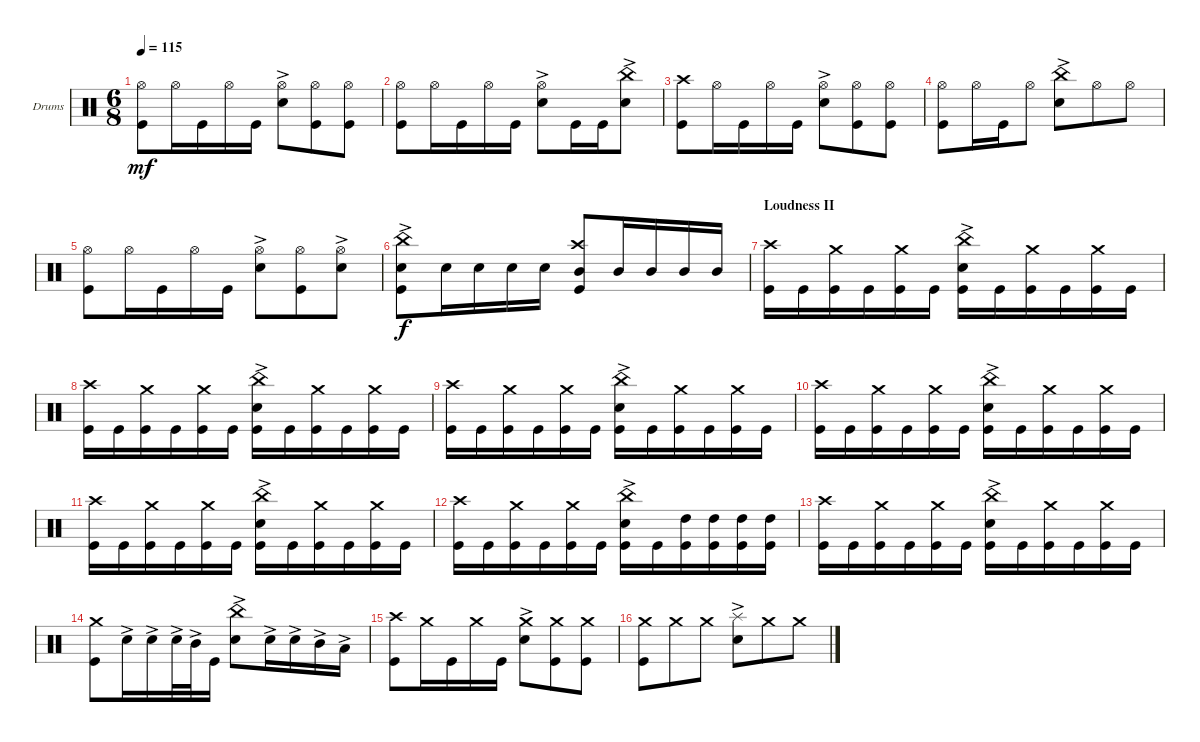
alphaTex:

\bracketExtendMode groupsimilarinstruments
\firstSystemTrackNameOrientation horizontal
\otherSystemsTrackNameOrientation horizontal
\track ("Drumkit" "Drums") {instrument percussion}
\staff {score}
\articulation defaults
\ts (6 8)
\tempo 115
\clef neutral
\ks c
("Kick (hit)" "Hi-Hat (open)").8{dy mf} "Hi-Hat (open)".16 "Kick (hit)".16 "Hi-Hat (open)".16 "Kick (hit)".16 ("Snare (hit) 2"{ac} "Hi-Hat (open)").8 ("Kick (hit)" "Hi-Hat (open)").8 ("Kick (hit)" "Hi-Hat (open)").8 |
("Kick (hit)" "Hi-Hat (open)").8 "Hi-Hat (open)".16 "Kick (hit)".16 "Hi-Hat (open)".16 "Kick (hit)".16 ("Snare (hit) 2"{ac} "Hi-Hat (open)").8 "Kick (hit)".16 "Kick (hit)".16 ("Snare (hit) 2"{ac} "China (hit)").8 |
("Kick (hit)" "Crash high (hit)").8 "Hi-Hat (open)".16 "Kick (hit)".16 "Hi-Hat (open)".16 "Kick (hit)".16 ("Snare (hit) 2"{ac} "Hi-Hat (open)").8 ("Kick (hit)" "Hi-Hat (open)").8 ("Kick (hit)" "Hi-Hat (open)").8 |
("Kick (hit)" "Hi-Hat (open)").8 "Hi-Hat (open)".16 "Kick (hit)".16 "Hi-Hat (open)".8 ("Snare (hit) 2"{ac} "China (hit)").8 "Hi-Hat (open)".8 "Hi-Hat (open)".8 |
("Kick (hit)" "Hi-Hat (open)").8 "Hi-Hat (open)".16 "Kick (hit)".16 "Hi-Hat (open)".16 "Kick (hit)".16 ("Snare (hit) 2"{ac} "Hi-Hat (open)").8 ("Kick (hit)" "Hi-Hat (open)").8 ("Hi-Hat (open)" "Snare (hit) 2"{ac}).8 |
("Kick (hit)" "China (hit)" "Snare (hit) 2"{ac}).8{dy f} "Snare (hit) 2".16 "Snare (hit) 2".16 "Snare (hit) 2".16 "Snare (hit) 2".16 ("Mid Tom (hit)" "Kick (hit)" "Crash high (hit)").8 "Mid Tom (hit)".16 "Mid Tom (hit)".16 "Mid Tom (hit)".16 "Mid Tom (hit)".16 |
\section ("" "Loudness II")
("Kick (hit)" "Crash high (hit)").16 "Kick (hit)".16 ("Kick (hit)" "Crash medium (hit)").16 "Kick (hit)".16 ("Kick (hit)" "Crash medium (hit)").16 "Kick (hit)".16 ("Kick (hit)" "China (hit)" "Snare (hit) 2"{ac}).16 "Kick (hit)".16 ("Kick (hit)" "Crash medium (hit)").16 "Kick (hit)".16 ("Kick (hit)" "Crash medium (hit)").16 "Kick (hit)".16 |
("Kick (hit)" "Crash high (hit)").16 "Kick (hit)".16 ("Kick (hit)" "Crash medium (hit)").16 "Kick (hit)".16 ("Kick (hit)" "Crash medium (hit)").16 "Kick (hit)".16 ("Kick (hit)" "China (hit)" "Snare (hit) 2"{ac}).16 "Kick (hit)".16 ("Kick (hit)" "Crash medium (hit)").16 "Kick (hit)".16 ("Kick (hit)" "Crash medium (hit)").16 "Kick (hit)".16 |
("Kick (hit)" "Crash high (hit)").16 "Kick (hit)".16 ("Kick (hit)" "Crash medium (hit)").16 "Kick (hit)".16 ("Kick (hit)" "Crash medium (hit)").16 "Kick (hit)".16 ("Kick (hit)" "China (hit)" "Snare (hit) 2"{ac}).16 "Kick (hit)".16 ("Kick (hit)" "Crash medium (hit)").16 "Kick (hit)".16 ("Kick (hit)" "Crash medium (hit)").16 "Kick (hit)".16 |
("Kick (hit)" "Crash high (hit)").16 "Kick (hit)".16 ("Kick (hit)" "Crash medium (hit)").16 "Kick (hit)".16 ("Kick (hit)" "Crash medium (hit)").16 "Kick (hit)".16 ("Kick (hit)" "China (hit)" "Snare (hit) 2"{ac}).16 "Kick (hit)".16 ("Kick (hit)" "Crash medium (hit)").16 "Kick (hit)".16 ("Kick (hit)" "Crash medium (hit)").16 "Kick (hit)".16 |
("Kick (hit)" "Crash high (hit)").16 "Kick (hit)".16 ("Kick (hit)" "Crash medium (hit)").16 "Kick (hit)".16 ("Kick (hit)" "Crash medium (hit)").16 "Kick (hit)".16 ("Kick (hit)" "China (hit)" "Snare (hit) 2"{ac}).16 "Kick (hit)".16 ("Kick (hit)" "Crash medium (hit)").16 "Kick (hit)".16 ("Kick (hit)" "Crash medium (hit)").16 "Kick (hit)".16 |
("Kick (hit)" "Crash high (hit)").16 "Kick (hit)".16 ("Kick (hit)" "Crash medium (hit)").16 "Kick (hit)".16 ("Kick (hit)" "Crash medium (hit)").16 "Kick (hit)".16 ("Kick (hit)" "China (hit)" "Snare (hit) 2"{ac}).16 "Kick (hit)".16 ("Kick (hit)" "High Tom (hit)").16 ("Kick (hit)" "High Tom (hit)").16 ("Kick (hit)" "High Tom (hit)").16 ("Kick (hit)" "High Tom (hit)").16 |
("Kick (hit)" "Crash high (hit)").16 "Kick (hit)".16 ("Kick (hit)" "Crash medium (hit)").16 "Kick (hit)".16 ("Kick (hit)" "Crash medium (hit)").16 "Kick (hit)".16 ("Kick (hit)" "China (hit)" "Snare (hit) 2"{ac}).16 "Kick (hit)".16 ("Kick (hit)" "Crash medium (hit)").16 "Kick (hit)".16 ("Kick (hit)" "Crash medium (hit)").16 "Kick (hit)".16 |
("Kick (hit)" "Crash medium (hit)").8 "Snare (hit) 2"{ac}.16 "Snare (hit) 2"{ac}.16 "Snare (hit) 2"{ac}.32 "Mid Tom (hit)"{ac}.32 "Kick (hit)".16 ("Snare (hit) 2"{ac} "China (hit)").8 "Snare (hit) 2"{ac}.16 "Snare (hit) 2"{ac}.16 "Mid Tom (hit)"{ac}.16 "Low Tom (hit)"{ac}.16 |
("Kick (hit)" "Crash high (hit)").8 "Crash medium (hit)".16 "Kick (hit)".16 "Crash medium (hit)".16 "Kick (hit)".16 ("Snare (hit) 2"{ac} "Crash medium (hit)").8 ("Kick (hit)" "Crash medium (hit)").8 ("Kick (hit)" "Crash medium (hit)").8 |
("Kick (hit)" "Crash medium (hit)").8 "Crash medium (hit)".8 "Crash medium (hit)".8 ("Snare (hit) 2"{ac} "Splash (hit)").8 "Crash medium (hit)".8 "Crash medium (hit)".8
